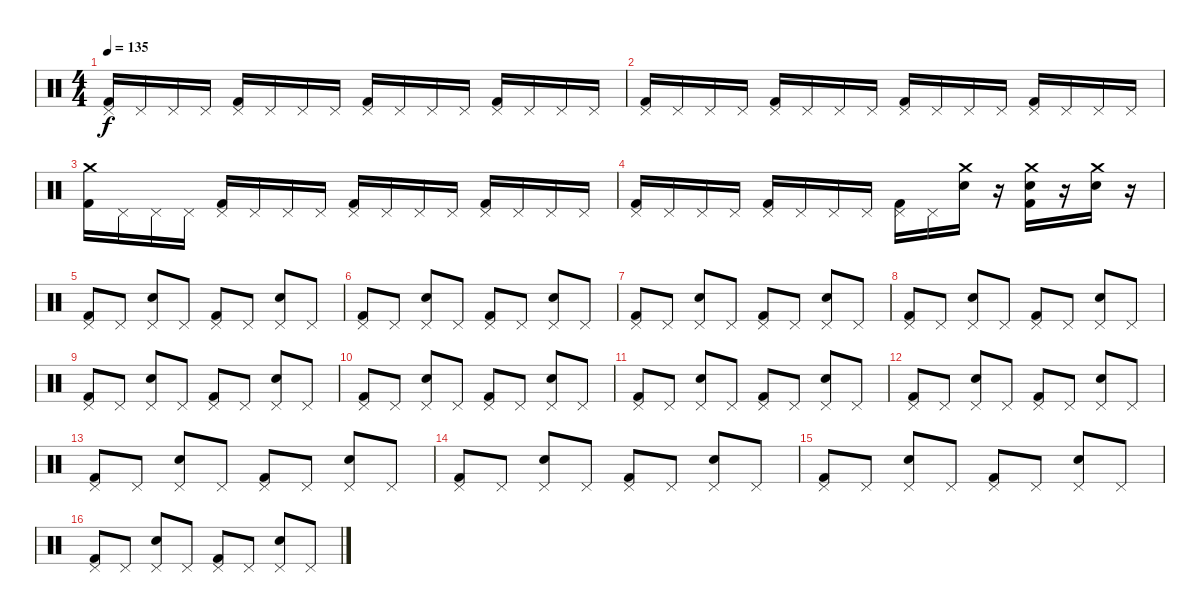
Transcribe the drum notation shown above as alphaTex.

\track "" {instrument percussion}
\staff {score}
\articulation defaults
\ts (4 4)
\tempo 135
\clef neutral
\ks c
("Kick (hit) 2" "Pedal Hi-Hat (hit)").16{dy f} "Pedal Hi-Hat (hit)".16 "Pedal Hi-Hat (hit)".16 "Pedal Hi-Hat (hit)".16 ("Kick (hit) 2" "Pedal Hi-Hat (hit)").16 "Pedal Hi-Hat (hit)".16 "Pedal Hi-Hat (hit)".16 "Pedal Hi-Hat (hit)".16 ("Kick (hit) 2" "Pedal Hi-Hat (hit)").16 "Pedal Hi-Hat (hit)".16 "Pedal Hi-Hat (hit)".16 "Pedal Hi-Hat (hit)".16 ("Kick (hit) 2" "Pedal Hi-Hat (hit)").16 "Pedal Hi-Hat (hit)".16 "Pedal Hi-Hat (hit)".16 "Pedal Hi-Hat (hit)".16 |
("Kick (hit) 2" "Pedal Hi-Hat (hit)").16 "Pedal Hi-Hat (hit)".16 "Pedal Hi-Hat (hit)".16 "Pedal Hi-Hat (hit)".16 ("Kick (hit) 2" "Pedal Hi-Hat (hit)").16 "Pedal Hi-Hat (hit)".16 "Pedal Hi-Hat (hit)".16 "Pedal Hi-Hat (hit)".16 ("Kick (hit) 2" "Pedal Hi-Hat (hit)").16 "Pedal Hi-Hat (hit)".16 "Pedal Hi-Hat (hit)".16 "Pedal Hi-Hat (hit)".16 ("Kick (hit) 2" "Pedal Hi-Hat (hit)").16 "Pedal Hi-Hat (hit)".16 "Pedal Hi-Hat (hit)".16 "Pedal Hi-Hat (hit)".16 |
("Kick (hit) 2" "Crash medium (hit)").16 "Pedal Hi-Hat (hit)".16 "Pedal Hi-Hat (hit)".16 "Pedal Hi-Hat (hit)".16 ("Kick (hit) 2" "Pedal Hi-Hat (hit)").16 "Pedal Hi-Hat (hit)".16 "Pedal Hi-Hat (hit)".16 "Pedal Hi-Hat (hit)".16 ("Kick (hit) 2" "Pedal Hi-Hat (hit)").16 "Pedal Hi-Hat (hit)".16 "Pedal Hi-Hat (hit)".16 "Pedal Hi-Hat (hit)".16 ("Kick (hit) 2" "Pedal Hi-Hat (hit)").16 "Pedal Hi-Hat (hit)".16 "Pedal Hi-Hat (hit)".16 "Pedal Hi-Hat (hit)".16 |
("Kick (hit) 2" "Pedal Hi-Hat (hit)").16 "Pedal Hi-Hat (hit)".16 "Pedal Hi-Hat (hit)".16 "Pedal Hi-Hat (hit)".16 ("Kick (hit) 2" "Pedal Hi-Hat (hit)").16 "Pedal Hi-Hat (hit)".16 "Pedal Hi-Hat (hit)".16 "Pedal Hi-Hat (hit)".16 ("Kick (hit) 2" "Pedal Hi-Hat (hit)").16 "Pedal Hi-Hat (hit)".16 ("Electric Snare (hit)" "Crash medium (hit)").16 r.16 ("Kick (hit) 2" "Electric Snare (hit)" "Crash medium (hit)").16 r.16 ("Electric Snare (hit)" "Crash medium (hit)").16 r.16 |
("Kick (hit) 2" "Pedal Hi-Hat (hit)").8 "Pedal Hi-Hat (hit)".8 ("Electric Snare (hit)" "Pedal Hi-Hat (hit)").8 "Pedal Hi-Hat (hit)".8 ("Kick (hit) 2" "Pedal Hi-Hat (hit)").8 "Pedal Hi-Hat (hit)".8 ("Electric Snare (hit)" "Pedal Hi-Hat (hit)").8 "Pedal Hi-Hat (hit)".8 |
("Kick (hit) 2" "Pedal Hi-Hat (hit)").8 "Pedal Hi-Hat (hit)".8 ("Electric Snare (hit)" "Pedal Hi-Hat (hit)").8 "Pedal Hi-Hat (hit)".8 ("Kick (hit) 2" "Pedal Hi-Hat (hit)").8 "Pedal Hi-Hat (hit)".8 ("Electric Snare (hit)" "Pedal Hi-Hat (hit)").8 "Pedal Hi-Hat (hit)".8 |
("Kick (hit) 2" "Pedal Hi-Hat (hit)").8 "Pedal Hi-Hat (hit)".8 ("Electric Snare (hit)" "Pedal Hi-Hat (hit)").8 "Pedal Hi-Hat (hit)".8 ("Kick (hit) 2" "Pedal Hi-Hat (hit)").8 "Pedal Hi-Hat (hit)".8 ("Electric Snare (hit)" "Pedal Hi-Hat (hit)").8 "Pedal Hi-Hat (hit)".8 |
("Kick (hit) 2" "Pedal Hi-Hat (hit)").8 "Pedal Hi-Hat (hit)".8 ("Electric Snare (hit)" "Pedal Hi-Hat (hit)").8 "Pedal Hi-Hat (hit)".8 ("Kick (hit) 2" "Pedal Hi-Hat (hit)").8 "Pedal Hi-Hat (hit)".8 ("Electric Snare (hit)" "Pedal Hi-Hat (hit)").8 "Pedal Hi-Hat (hit)".8 |
("Kick (hit) 2" "Pedal Hi-Hat (hit)").8 "Pedal Hi-Hat (hit)".8 ("Electric Snare (hit)" "Pedal Hi-Hat (hit)").8 "Pedal Hi-Hat (hit)".8 ("Kick (hit) 2" "Pedal Hi-Hat (hit)").8 "Pedal Hi-Hat (hit)".8 ("Electric Snare (hit)" "Pedal Hi-Hat (hit)").8 "Pedal Hi-Hat (hit)".8 |
("Kick (hit) 2" "Pedal Hi-Hat (hit)").8 "Pedal Hi-Hat (hit)".8 ("Electric Snare (hit)" "Pedal Hi-Hat (hit)").8 "Pedal Hi-Hat (hit)".8 ("Kick (hit) 2" "Pedal Hi-Hat (hit)").8 "Pedal Hi-Hat (hit)".8 ("Electric Snare (hit)" "Pedal Hi-Hat (hit)").8 "Pedal Hi-Hat (hit)".8 |
("Kick (hit) 2" "Pedal Hi-Hat (hit)").8 "Pedal Hi-Hat (hit)".8 ("Electric Snare (hit)" "Pedal Hi-Hat (hit)").8 "Pedal Hi-Hat (hit)".8 ("Kick (hit) 2" "Pedal Hi-Hat (hit)").8 "Pedal Hi-Hat (hit)".8 ("Electric Snare (hit)" "Pedal Hi-Hat (hit)").8 "Pedal Hi-Hat (hit)".8 |
("Kick (hit) 2" "Pedal Hi-Hat (hit)").8 "Pedal Hi-Hat (hit)".8 ("Electric Snare (hit)" "Pedal Hi-Hat (hit)").8 "Pedal Hi-Hat (hit)".8 ("Kick (hit) 2" "Pedal Hi-Hat (hit)").8 "Pedal Hi-Hat (hit)".8 ("Electric Snare (hit)" "Pedal Hi-Hat (hit)").8 "Pedal Hi-Hat (hit)".8 |
("Kick (hit) 2" "Pedal Hi-Hat (hit)").8 "Pedal Hi-Hat (hit)".8 ("Electric Snare (hit)" "Pedal Hi-Hat (hit)").8 "Pedal Hi-Hat (hit)".8 ("Kick (hit) 2" "Pedal Hi-Hat (hit)").8 "Pedal Hi-Hat (hit)".8 ("Electric Snare (hit)" "Pedal Hi-Hat (hit)").8 "Pedal Hi-Hat (hit)".8 |
("Kick (hit) 2" "Pedal Hi-Hat (hit)").8 "Pedal Hi-Hat (hit)".8 ("Electric Snare (hit)" "Pedal Hi-Hat (hit)").8 "Pedal Hi-Hat (hit)".8 ("Kick (hit) 2" "Pedal Hi-Hat (hit)").8 "Pedal Hi-Hat (hit)".8 ("Electric Snare (hit)" "Pedal Hi-Hat (hit)").8 "Pedal Hi-Hat (hit)".8 |
("Kick (hit) 2" "Pedal Hi-Hat (hit)").8 "Pedal Hi-Hat (hit)".8 ("Electric Snare (hit)" "Pedal Hi-Hat (hit)").8 "Pedal Hi-Hat (hit)".8 ("Kick (hit) 2" "Pedal Hi-Hat (hit)").8 "Pedal Hi-Hat (hit)".8 ("Electric Snare (hit)" "Pedal Hi-Hat (hit)").8 "Pedal Hi-Hat (hit)".8 |
("Kick (hit) 2" "Pedal Hi-Hat (hit)").8 "Pedal Hi-Hat (hit)".8 ("Electric Snare (hit)" "Pedal Hi-Hat (hit)").8 "Pedal Hi-Hat (hit)".8 ("Kick (hit) 2" "Pedal Hi-Hat (hit)").8 "Pedal Hi-Hat (hit)".8 ("Electric Snare (hit)" "Pedal Hi-Hat (hit)").8 "Pedal Hi-Hat (hit)".8
